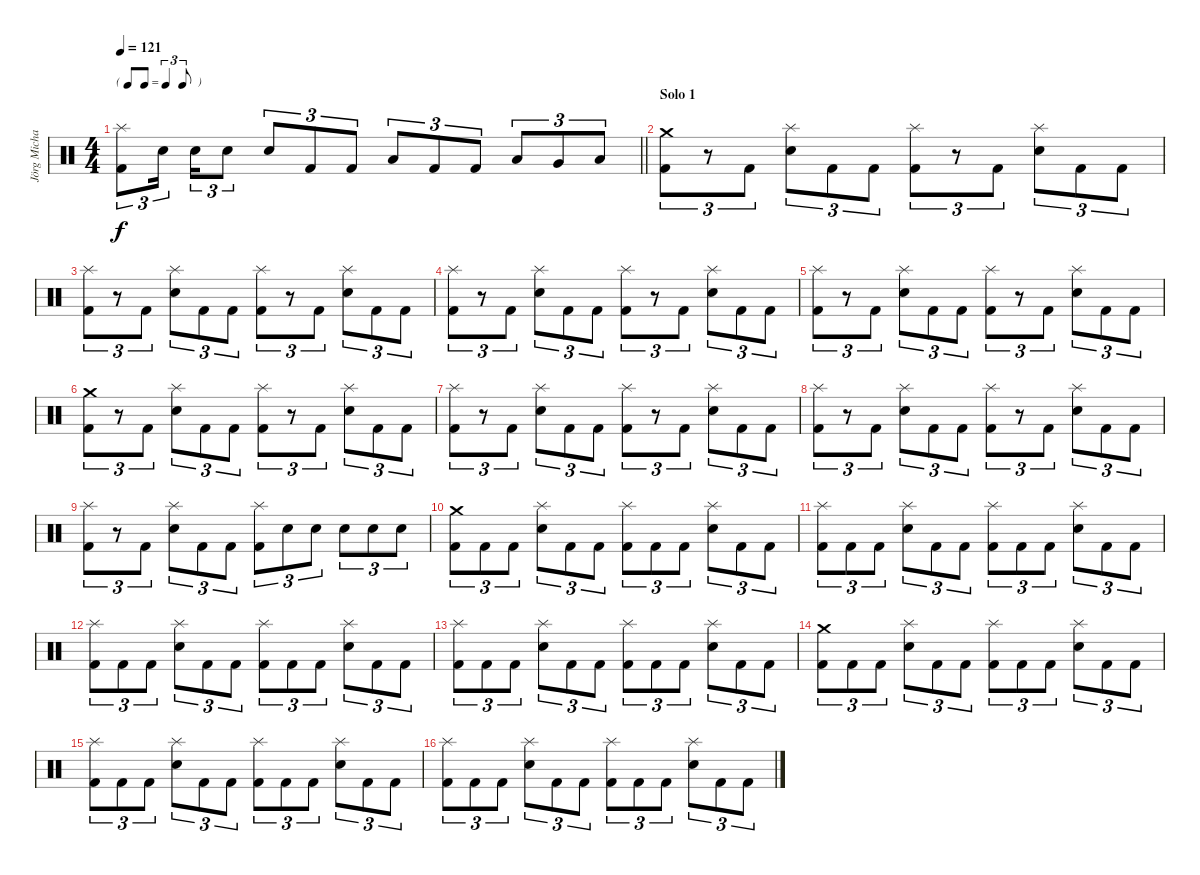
\track ("Jörg Michael" "Jörg Micha") {instrument percussion}
\staff {score}
\articulation defaults
\ts (4 4)
\tf triplet8th
\tempo 121
\clef neutral
\barLineRight lightlight
\ks c
("Splash (hit)" "Kick (hit) 2").8{tu (3 2) dy f} "Snare (hit) 2".16{tu (3 2) beam splitsecondary} "Snare (hit) 2".16{tu (3 2)} "Snare (hit) 2".8{tu (3 2)} "Snare (hit) 2".8{tu (3 2)} "Kick (hit) 2".8{tu (3 2)} "Kick (hit) 2".8{tu (3 2)} "Low Tom (hit)".8{tu (3 2)} "Kick (hit) 2".8{tu (3 2)} "Kick (hit) 2".8{tu (3 2)} "Low Tom (hit)".8{tu (3 2)} "Very Low Tom (hit)".8{tu (3 2)} "Low Floor Tom (hit)".8{tu (3 2)} |
\section ("" "Solo 1")
("Crash medium (hit)" "Kick (hit) 2").8{tu (3 2)} r.8{tu (3 2)} "Kick (hit) 2".8{tu (3 2)} ("Splash (hit)" "Snare (hit) 2").8{tu (3 2)} "Kick (hit) 2".8{tu (3 2)} "Kick (hit) 2".8{tu (3 2)} ("Splash (hit)" "Kick (hit) 2").8{tu (3 2)} r.8{tu (3 2)} "Kick (hit) 2".8{tu (3 2)} ("Splash (hit)" "Snare (hit) 2").8{tu (3 2)} "Kick (hit) 2".8{tu (3 2)} "Kick (hit) 2".8{tu (3 2)} |
("Splash (hit)" "Kick (hit) 2").8{tu (3 2)} r.8{tu (3 2)} "Kick (hit) 2".8{tu (3 2)} ("Splash (hit)" "Snare (hit) 2").8{tu (3 2)} "Kick (hit) 2".8{tu (3 2)} "Kick (hit) 2".8{tu (3 2)} ("Splash (hit)" "Kick (hit) 2").8{tu (3 2)} r.8{tu (3 2)} "Kick (hit) 2".8{tu (3 2)} ("Splash (hit)" "Snare (hit) 2").8{tu (3 2)} "Kick (hit) 2".8{tu (3 2)} "Kick (hit) 2".8{tu (3 2)} |
("Splash (hit)" "Kick (hit) 2").8{tu (3 2)} r.8{tu (3 2)} "Kick (hit) 2".8{tu (3 2)} ("Splash (hit)" "Snare (hit) 2").8{tu (3 2)} "Kick (hit) 2".8{tu (3 2)} "Kick (hit) 2".8{tu (3 2)} ("Splash (hit)" "Kick (hit) 2").8{tu (3 2)} r.8{tu (3 2)} "Kick (hit) 2".8{tu (3 2)} ("Splash (hit)" "Snare (hit) 2").8{tu (3 2)} "Kick (hit) 2".8{tu (3 2)} "Kick (hit) 2".8{tu (3 2)} |
("Splash (hit)" "Kick (hit) 2").8{tu (3 2)} r.8{tu (3 2)} "Kick (hit) 2".8{tu (3 2)} ("Splash (hit)" "Snare (hit) 2").8{tu (3 2)} "Kick (hit) 2".8{tu (3 2)} "Kick (hit) 2".8{tu (3 2)} ("Splash (hit)" "Kick (hit) 2").8{tu (3 2)} r.8{tu (3 2)} "Kick (hit) 2".8{tu (3 2)} ("Splash (hit)" "Snare (hit) 2").8{tu (3 2)} "Kick (hit) 2".8{tu (3 2)} "Kick (hit) 2".8{tu (3 2)} |
("Crash medium (hit)" "Kick (hit) 2").8{tu (3 2)} r.8{tu (3 2)} "Kick (hit) 2".8{tu (3 2)} ("Splash (hit)" "Snare (hit) 2").8{tu (3 2)} "Kick (hit) 2".8{tu (3 2)} "Kick (hit) 2".8{tu (3 2)} ("Splash (hit)" "Kick (hit) 2").8{tu (3 2)} r.8{tu (3 2)} "Kick (hit) 2".8{tu (3 2)} ("Splash (hit)" "Snare (hit) 2").8{tu (3 2)} "Kick (hit) 2".8{tu (3 2)} "Kick (hit) 2".8{tu (3 2)} |
("Splash (hit)" "Kick (hit) 2").8{tu (3 2)} r.8{tu (3 2)} "Kick (hit) 2".8{tu (3 2)} ("Splash (hit)" "Snare (hit) 2").8{tu (3 2)} "Kick (hit) 2".8{tu (3 2)} "Kick (hit) 2".8{tu (3 2)} ("Splash (hit)" "Kick (hit) 2").8{tu (3 2)} r.8{tu (3 2)} "Kick (hit) 2".8{tu (3 2)} ("Splash (hit)" "Snare (hit) 2").8{tu (3 2)} "Kick (hit) 2".8{tu (3 2)} "Kick (hit) 2".8{tu (3 2)} |
("Splash (hit)" "Kick (hit) 2").8{tu (3 2)} r.8{tu (3 2)} "Kick (hit) 2".8{tu (3 2)} ("Splash (hit)" "Snare (hit) 2").8{tu (3 2)} "Kick (hit) 2".8{tu (3 2)} "Kick (hit) 2".8{tu (3 2)} ("Splash (hit)" "Kick (hit) 2").8{tu (3 2)} r.8{tu (3 2)} "Kick (hit) 2".8{tu (3 2)} ("Splash (hit)" "Snare (hit) 2").8{tu (3 2)} "Kick (hit) 2".8{tu (3 2)} "Kick (hit) 2".8{tu (3 2)} |
("Splash (hit)" "Kick (hit) 2").8{tu (3 2)} r.8{tu (3 2)} "Kick (hit) 2".8{tu (3 2)} ("Splash (hit)" "Snare (hit) 2").8{tu (3 2)} "Kick (hit) 2".8{tu (3 2)} "Kick (hit) 2".8{tu (3 2)} ("Splash (hit)" "Kick (hit) 2").8{tu (3 2)} "Snare (hit) 2".8{tu (3 2)} "Snare (hit) 2".8{tu (3 2)} "Snare (hit) 2".8{tu (3 2)} "Snare (hit) 2".8{tu (3 2)} "Snare (hit) 2".8{tu (3 2)} |
("Crash medium (hit)" "Kick (hit) 2").8{tu (3 2)} "Kick (hit) 2".8{tu (3 2)} "Kick (hit) 2".8{tu (3 2)} ("Splash (hit)" "Snare (hit) 2").8{tu (3 2)} "Kick (hit) 2".8{tu (3 2)} "Kick (hit) 2".8{tu (3 2)} ("Splash (hit)" "Kick (hit) 2").8{tu (3 2)} "Kick (hit) 2".8{tu (3 2)} "Kick (hit) 2".8{tu (3 2)} ("Splash (hit)" "Snare (hit) 2").8{tu (3 2)} "Kick (hit) 2".8{tu (3 2)} "Kick (hit) 2".8{tu (3 2)} |
("Splash (hit)" "Kick (hit) 2").8{tu (3 2)} "Kick (hit) 2".8{tu (3 2)} "Kick (hit) 2".8{tu (3 2)} ("Splash (hit)" "Snare (hit) 2").8{tu (3 2)} "Kick (hit) 2".8{tu (3 2)} "Kick (hit) 2".8{tu (3 2)} ("Splash (hit)" "Kick (hit) 2").8{tu (3 2)} "Kick (hit) 2".8{tu (3 2)} "Kick (hit) 2".8{tu (3 2)} ("Splash (hit)" "Snare (hit) 2").8{tu (3 2)} "Kick (hit) 2".8{tu (3 2)} "Kick (hit) 2".8{tu (3 2)} |
("Splash (hit)" "Kick (hit) 2").8{tu (3 2)} "Kick (hit) 2".8{tu (3 2)} "Kick (hit) 2".8{tu (3 2)} ("Splash (hit)" "Snare (hit) 2").8{tu (3 2)} "Kick (hit) 2".8{tu (3 2)} "Kick (hit) 2".8{tu (3 2)} ("Splash (hit)" "Kick (hit) 2").8{tu (3 2)} "Kick (hit) 2".8{tu (3 2)} "Kick (hit) 2".8{tu (3 2)} ("Splash (hit)" "Snare (hit) 2").8{tu (3 2)} "Kick (hit) 2".8{tu (3 2)} "Kick (hit) 2".8{tu (3 2)} |
("Splash (hit)" "Kick (hit) 2").8{tu (3 2)} "Kick (hit) 2".8{tu (3 2)} "Kick (hit) 2".8{tu (3 2)} ("Splash (hit)" "Snare (hit) 2").8{tu (3 2)} "Kick (hit) 2".8{tu (3 2)} "Kick (hit) 2".8{tu (3 2)} ("Splash (hit)" "Kick (hit) 2").8{tu (3 2)} "Kick (hit) 2".8{tu (3 2)} "Kick (hit) 2".8{tu (3 2)} ("Splash (hit)" "Snare (hit) 2").8{tu (3 2)} "Kick (hit) 2".8{tu (3 2)} "Kick (hit) 2".8{tu (3 2)} |
("Crash medium (hit)" "Kick (hit) 2").8{tu (3 2)} "Kick (hit) 2".8{tu (3 2)} "Kick (hit) 2".8{tu (3 2)} ("Splash (hit)" "Snare (hit) 2").8{tu (3 2)} "Kick (hit) 2".8{tu (3 2)} "Kick (hit) 2".8{tu (3 2)} ("Splash (hit)" "Kick (hit) 2").8{tu (3 2)} "Kick (hit) 2".8{tu (3 2)} "Kick (hit) 2".8{tu (3 2)} ("Splash (hit)" "Snare (hit) 2").8{tu (3 2)} "Kick (hit) 2".8{tu (3 2)} "Kick (hit) 2".8{tu (3 2)} |
("Splash (hit)" "Kick (hit) 2").8{tu (3 2)} "Kick (hit) 2".8{tu (3 2)} "Kick (hit) 2".8{tu (3 2)} ("Splash (hit)" "Snare (hit) 2").8{tu (3 2)} "Kick (hit) 2".8{tu (3 2)} "Kick (hit) 2".8{tu (3 2)} ("Splash (hit)" "Kick (hit) 2").8{tu (3 2)} "Kick (hit) 2".8{tu (3 2)} "Kick (hit) 2".8{tu (3 2)} ("Splash (hit)" "Snare (hit) 2").8{tu (3 2)} "Kick (hit) 2".8{tu (3 2)} "Kick (hit) 2".8{tu (3 2)} |
("Splash (hit)" "Kick (hit) 2").8{tu (3 2)} "Kick (hit) 2".8{tu (3 2)} "Kick (hit) 2".8{tu (3 2)} ("Splash (hit)" "Snare (hit) 2").8{tu (3 2)} "Kick (hit) 2".8{tu (3 2)} "Kick (hit) 2".8{tu (3 2)} ("Splash (hit)" "Kick (hit) 2").8{tu (3 2)} "Kick (hit) 2".8{tu (3 2)} "Kick (hit) 2".8{tu (3 2)} ("Splash (hit)" "Snare (hit) 2").8{tu (3 2)} "Kick (hit) 2".8{tu (3 2)} "Kick (hit) 2".8{tu (3 2)}
